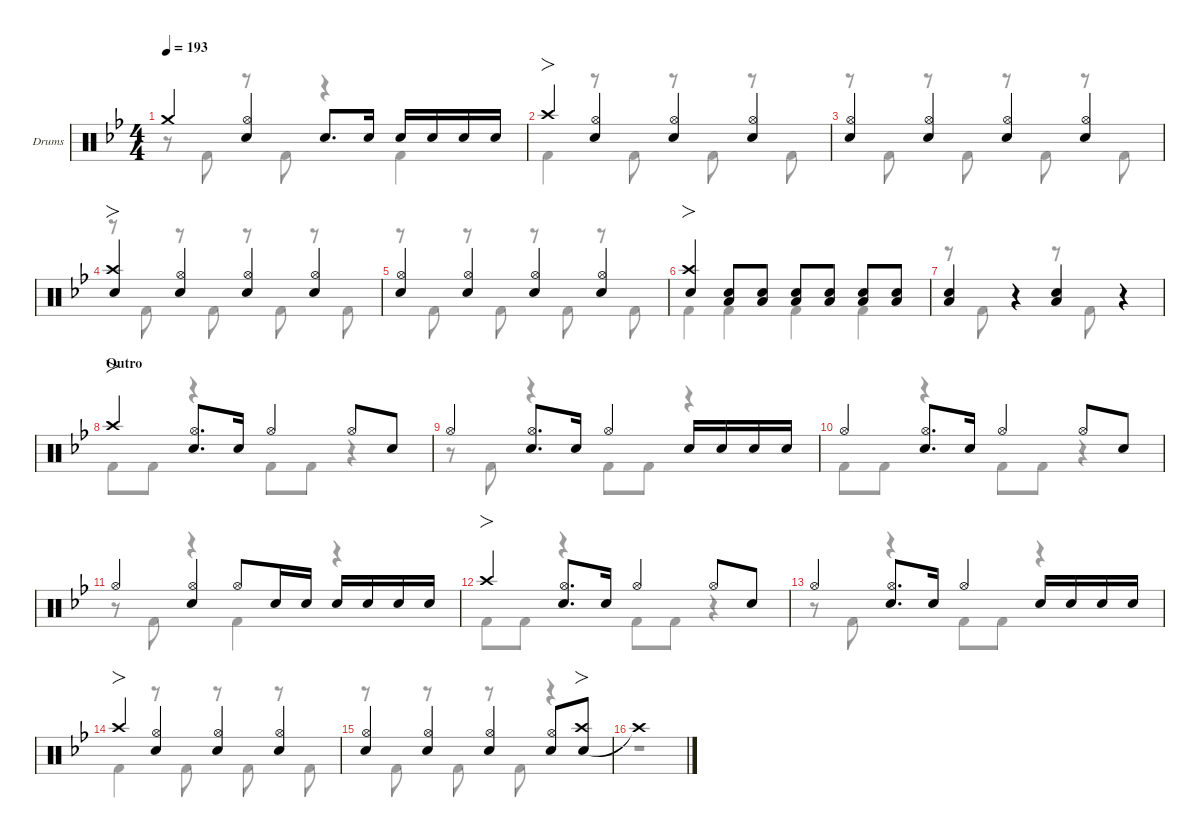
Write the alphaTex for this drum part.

\defaultSystemsLayout 4
\hideDynamics
\bracketExtendMode nobrackets
\firstSystemTrackNameOrientation horizontal
\track ("Drums" "Drums") {defaultSystemsLayout 4 instrument percussion}
\staff {score}
\articulation defaults
\voice
\ts (4 4)
\tempo 193
\clef neutral
\scale
0.244132
\ks bb "Crash medium (hit)"{t acc forcenatural}.4{dy f beam Up}
("Snare (hit) 2"{acc forcenatural} "Hi-Hat (open)"{acc forcenatural}).4{beam Up} "Snare (hit) 2"{acc forcenatural}.8{d beam Up beam merge} "Snare (hit) 2"{acc forcenatural}.16{beam Up beam split} "Snare (hit) 2"{acc forcenatural}.16{beam Up beam merge} "Snare (hit) 2"{acc forcenatural}.16{beam Up beam merge} "Snare (hit) 2"{acc forcenatural}.16{beam Up beam merge} "Snare (hit) 2"{acc forcenatural}.16{beam Up beam split} |
\scale
0.267605 "Crash high (hit)"{acc forcenatural}.4{fo beam Up} ("Snare (hit) 2"{acc forcenatural} "Hi-Hat (open)"{acc forcenatural}).4{beam Up} ("Snare (hit) 2"{acc forcenatural} "Hi-Hat (open)"{acc forcenatural}).4{beam Up} ("Snare (hit) 2"{acc forcenatural} "Hi-Hat (open)"{acc forcenatural}).4{beam Up} |
\scale
0.244132 ("Snare (hit) 2"{acc forcenatural} "Hi-Hat (open)"{acc forcenatural}).4{beam Up} ("Snare (hit) 2"{acc forcenatural} "Hi-Hat (open)"{acc forcenatural}).4{beam Up} ("Snare (hit) 2"{acc forcenatural} "Hi-Hat (open)"{acc forcenatural}).4{beam Up} ("Snare (hit) 2"{acc forcenatural} "Hi-Hat (open)"{acc forcenatural}).4{beam Up} |
\scale
0.244132 ("Crash high (hit)"{acc forcenatural} "Snare (hit) 2"{acc forcenatural}).4{fo beam Up} ("Snare (hit) 2"{acc forcenatural} "Hi-Hat (open)"{acc forcenatural}).4{beam Up} ("Snare (hit) 2"{acc forcenatural} "Hi-Hat (open)"{acc forcenatural}).4{beam Up} ("Snare (hit) 2"{acc forcenatural} "Hi-Hat (open)"{acc forcenatural}).4{beam Up} |
\scale
0.244132 ("Snare (hit) 2"{acc forcenatural} "Hi-Hat (open)"{acc forcenatural}).4{beam Up} ("Snare (hit) 2"{acc forcenatural} "Hi-Hat (open)"{acc forcenatural}).4{beam Up} ("Snare (hit) 2"{acc forcenatural} "Hi-Hat (open)"{acc forcenatural}).4{beam Up} ("Snare (hit) 2"{acc forcenatural} "Hi-Hat (open)"{acc forcenatural}).4{beam Up} |
\scale
0.511737 ("Crash high (hit)"{acc forcenatural} "Snare (hit) 2"{acc forcenatural}).4{fo beam Up} ("Snare (hit) 2"{acc forcenatural} "Low Tom (hit)"{acc forcenatural}).8{beam Up} ("Snare (hit) 2"{acc forcenatural} "Low Tom (hit)"{acc forcenatural}).8{beam Up} ("Snare (hit) 2"{acc forcenatural} "Low Tom (hit)"{acc forcenatural}).8{beam Up} ("Snare (hit) 2"{acc forcenatural} "Low Tom (hit)"{acc forcenatural}).8{beam Up} ("Snare (hit) 2"{acc forcenatural} "Low Tom (hit)"{acc forcenatural}).8{beam Up} ("Snare (hit) 2"{acc forcenatural} "Low Tom (hit)"{acc forcenatural}).8{beam Up} |
\scale
0.488263 ("Low Tom (hit)"{acc forcenatural} "Snare (hit) 2"{acc forcenatural}).4{beam Up} r.4{beam Up} ("Low Tom (hit)"{acc forcenatural} "Snare (hit) 2"{acc forcenatural}).4{beam Up} r.4{beam Up} |
\section ("" "Outro")
\scale
0.267605 "Crash high (hit)"{acc forcenatural}.4{fo beam Up} ("Hi-Hat (open)"{acc forcenatural} "Snare (hit) 2"{acc forcenatural}).8{d beam Up} "Snare (hit) 2"{acc forcenatural}.16{beam Up} "Hi-Hat (open)"{acc forcenatural}.4{beam Up} "Hi-Hat (open)"{acc forcenatural}.8{beam Up} "Snare (hit) 2"{acc forcenatural}.8{beam Up} |
\scale
0.244132 "Hi-Hat (open)"{acc forcenatural}.4{beam Up} ("Hi-Hat (open)"{acc forcenatural} "Snare (hit) 2"{acc forcenatural}).8{d beam Up} "Snare (hit) 2"{acc forcenatural}.16{beam Up} "Hi-Hat (open)"{acc forcenatural}.4{beam Up} "Snare (hit) 2"{acc forcenatural}.16{beam Up} "Snare (hit) 2"{acc forcenatural}.16{dy mf beam Up} "Snare (hit) 2"{acc forcenatural}.16{dy f beam Up} "Snare (hit) 2"{acc forcenatural}.16{dy mf beam Up} |
\scale
0.244132 "Hi-Hat (open)"{acc forcenatural}.4{dy f beam Up} ("Hi-Hat (open)"{acc forcenatural} "Snare (hit) 2"{acc forcenatural}).8{d beam Up} "Snare (hit) 2"{acc forcenatural}.16{beam Up} "Hi-Hat (open)"{acc forcenatural}.4{beam Up} "Hi-Hat (open)"{acc forcenatural}.8{beam Up} "Snare (hit) 2"{acc forcenatural}.8{beam Up} |
\scale
0.244132 "Hi-Hat (open)"{acc forcenatural}.4{beam Up} ("Hi-Hat (open)"{acc forcenatural} "Snare (hit) 2"{acc forcenatural}).4{beam Up} "Hi-Hat (open)"{acc forcenatural}.8{beam Up} "Snare (hit) 2"{acc forcenatural}.16{beam Up} "Snare (hit) 2"{acc forcenatural}.16{dy mf beam Up beam split} "Snare (hit) 2"{acc forcenatural}.16{dy f beam Up} "Snare (hit) 2"{acc forcenatural}.16{dy mf beam Up} "Snare (hit) 2"{acc forcenatural}.16{dy f beam Up} "Snare (hit) 2"{acc forcenatural}.16{dy mf beam Up} |
\scale
0.267605 "Crash high (hit)"{acc forcenatural}.4{fo dy f beam Up} ("Hi-Hat (open)"{acc forcenatural} "Snare (hit) 2"{acc forcenatural}).8{d beam Up} "Snare (hit) 2"{acc forcenatural}.16{beam Up} "Hi-Hat (open)"{acc forcenatural}.4{beam Up} "Hi-Hat (open)"{acc forcenatural}.8{beam Up} "Snare (hit) 2"{acc forcenatural}.8{beam Up} |
\scale
0.244132 "Hi-Hat (open)"{acc forcenatural}.4{beam Up} ("Hi-Hat (open)"{acc forcenatural} "Snare (hit) 2"{acc forcenatural}).8{d beam Up} "Snare (hit) 2"{acc forcenatural}.16{beam Up} "Hi-Hat (open)"{acc forcenatural}.4{beam Up} "Snare (hit) 2"{acc forcenatural}.16{beam Up} "Snare (hit) 2"{acc forcenatural}.16{dy mf beam Up} "Snare (hit) 2"{acc forcenatural}.16{dy f beam Up} "Snare (hit) 2"{acc forcenatural}.16{dy mf beam Up} |
\scale
0.244132 "Crash high (hit)"{acc forcenatural}.4{fo dy f beam Up} ("Hi-Hat (open)"{acc forcenatural} "Snare (hit) 2"{acc forcenatural}).4{beam Up} ("Hi-Hat (open)"{acc forcenatural} "Snare (hit) 2"{acc forcenatural}).4{beam Up} ("Hi-Hat (open)"{acc forcenatural} "Snare (hit) 2"{acc forcenatural}).4{beam Up} |
\scale
0.244132 ("Hi-Hat (open)"{acc forcenatural} "Snare (hit) 2"{acc forcenatural}).4{beam Up} ("Hi-Hat (open)"{acc forcenatural} "Snare (hit) 2"{acc forcenatural}).4{beam Up} ("Hi-Hat (open)"{acc forcenatural} "Snare (hit) 2"{acc forcenatural}).4{beam Up} ("Snare (hit) 2"{acc forcenatural} "Hi-Hat (open)"{acc forcenatural}).8{beam Up} ("Snare (hit) 2"{acc forcenatural} "Crash high (hit)"{acc forcenatural}).8{fo beam Up} |
\scale
0.267605 "Crash high (hit)"{t acc forcenatural}.1{beam Up}
\voice
\clef neutral
\ottava regular
\simile none
\scale
0.244132
\ks bb
r.8{dy f beam Down} "Kick (hit) 2"{acc forcenatural}.8{beam Down} r.8{beam Down} "Kick (hit) 2"{acc forcenatural}.8{beam Down} r.4{beam Down} "Kick (hit) 2"{acc forcenatural}.4{beam Down} |
\scale
0.267605 "Kick (hit) 2"{acc forcenatural}.4{beam Down} r.8{beam Down} "Kick (hit) 2"{acc forcenatural}.8{beam Down} r.8{beam Down} "Kick (hit) 2"{acc forcenatural}.8{beam Down} r.8{beam Down} "Kick (hit) 2"{acc forcenatural}.8{beam Down} |
\scale
0.244132 r.8{beam Down} "Kick (hit) 2"{acc forcenatural}.8{beam Down} r.8{beam Down} "Kick (hit) 2"{acc forcenatural}.8{beam Down} r.8{beam Down} "Kick (hit) 2"{acc forcenatural}.8{beam Down} r.8{beam Down} "Kick (hit) 2"{acc forcenatural}.8{beam Down} |
\scale
0.244132 r.8{beam Down} "Kick (hit) 2"{acc forcenatural}.8{beam Down} r.8{beam Down} "Kick (hit) 2"{acc forcenatural}.8{beam Down} r.8{beam Down} "Kick (hit) 2"{acc forcenatural}.8{beam Down} r.8{beam Down} "Kick (hit) 2"{acc forcenatural}.8{beam Down} |
\scale
0.244132 r.8{beam Down} "Kick (hit) 2"{acc forcenatural}.8{beam Down} r.8{beam Down} "Kick (hit) 2"{acc forcenatural}.8{beam Down} r.8{beam Down} "Kick (hit) 2"{acc forcenatural}.8{beam Down} r.8{beam Down} "Kick (hit) 2"{acc forcenatural}.8{beam Down} |
\scale
0.511737 "Kick (hit) 2"{acc forcenatural}.4{beam Down} "Kick (hit) 2"{acc forcenatural}.4{beam Down} "Kick (hit) 2"{acc forcenatural}.4{beam Down} "Kick (hit) 2"{acc forcenatural}.4{beam Down} |
\scale
0.488263 r.8{beam Down} "Kick (hit) 2"{acc forcenatural}.8{beam Down} r.4{beam Down} r.8{beam Down} "Kick (hit) 2"{acc forcenatural}.8{beam Down} r.4{beam Down} |
\scale
0.267605 "Kick (hit) 2"{acc forcenatural}.8{beam Down} "Kick (hit) 2"{acc forcenatural}.8{beam Down} r.4{beam Down} "Kick (hit) 2"{acc forcenatural}.8{beam Down} "Kick (hit) 2"{acc forcenatural}.8{beam Down} r.4{beam Down} |
\scale
0.244132 r.8{beam Down} "Kick (hit) 2"{acc forcenatural}.8{beam Down} r.4{beam Down} "Kick (hit) 2"{acc forcenatural}.8{beam Down} "Kick (hit) 2"{acc forcenatural}.8{beam Down} r.4{beam Down} |
\scale
0.244132 "Kick (hit) 2"{acc forcenatural}.8{beam Down} "Kick (hit) 2"{acc forcenatural}.8{beam Down} r.4{beam Down} "Kick (hit) 2"{acc forcenatural}.8{beam Down} "Kick (hit) 2"{acc forcenatural}.8{beam Down} r.4{beam Down} |
\scale
0.244132 r.8{beam Down} "Kick (hit) 2"{acc forcenatural}.8{beam Down} r.4{beam Down} "Kick (hit) 2"{acc forcenatural}.4{beam Down} r.4{beam Down} |
\scale
0.267605 "Kick (hit) 2"{acc forcenatural}.8{beam Down} "Kick (hit) 2"{acc forcenatural}.8{beam Down} r.4{beam Down} "Kick (hit) 2"{acc forcenatural}.8{beam Down} "Kick (hit) 2"{acc forcenatural}.8{beam Down} r.4{beam Down} |
\scale
0.244132 r.8{beam Down} "Kick (hit) 2"{acc forcenatural}.8{beam Down} r.4{beam Down} "Kick (hit) 2"{acc forcenatural}.8{beam Down} "Kick (hit) 2"{acc forcenatural}.8{beam Down} r.4{beam Down} |
\scale
0.244132 "Kick (hit) 2"{acc forcenatural}.4{beam Down} r.8{beam Down} "Kick (hit) 2"{acc forcenatural}.8{beam Down} r.8{beam Down} "Kick (hit) 2"{acc forcenatural}.8{beam Down} r.8{beam Down} "Kick (hit) 2"{acc forcenatural}.8{beam Down} |
\scale
0.244132 r.8{beam Down} "Kick (hit) 2"{acc forcenatural}.8{beam Down} r.8{beam Down} "Kick (hit) 2"{acc forcenatural}.8{beam Down} r.8{beam Down} "Kick (hit) 2"{acc forcenatural}.8{beam Down} r.4{beam Down} |
\scale
0.267605 r.1{beam Down}
